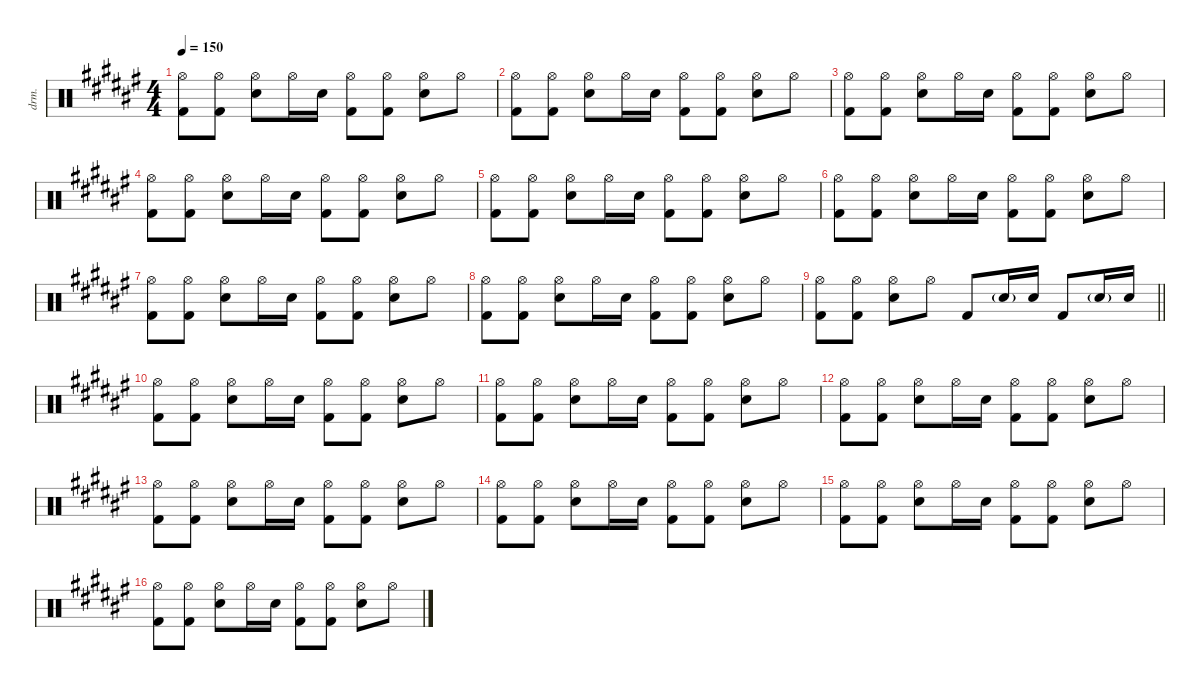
\defaultSystemsLayout 4
\hideDynamics
\bracketExtendMode nobrackets
\track (" (Drums)" "drm.") {instrument percussion}
\staff {score}
\articulation defaults
\ts (4 4)
\tempo 150
\clef neutral
\ks d#minor
("Hi-Hat (open)"{acc forcenatural} "Kick (hit) 2"{acc forcenatural}).8{dy f} ("Hi-Hat (open)"{acc forcenatural} "Kick (hit) 2"{acc forcenatural}).8 ("Hi-Hat (open)"{acc forcenatural} "Snare (hit) 2"{acc forcenatural}).8 "Hi-Hat (open)"{acc forcenatural}.16 "Snare (hit) 2"{acc forcenatural}.16{dy mf} ("Hi-Hat (open)"{acc forcenatural} "Kick (hit) 2"{acc forcenatural}).8{dy f} ("Hi-Hat (open)"{acc forcenatural} "Kick (hit) 2"{acc forcenatural}).8 ("Hi-Hat (open)"{acc forcenatural} "Snare (hit) 2"{acc forcenatural}).8 "Hi-Hat (open)"{acc forcenatural}.8 |
("Hi-Hat (open)"{acc forcenatural} "Kick (hit) 2"{acc forcenatural}).8 ("Hi-Hat (open)"{acc forcenatural} "Kick (hit) 2"{acc forcenatural}).8 ("Hi-Hat (open)"{acc forcenatural} "Snare (hit) 2"{acc forcenatural}).8 "Hi-Hat (open)"{acc forcenatural}.16 "Snare (hit) 2"{acc forcenatural}.16{dy mf} ("Hi-Hat (open)"{acc forcenatural} "Kick (hit) 2"{acc forcenatural}).8{dy f} ("Hi-Hat (open)"{acc forcenatural} "Kick (hit) 2"{acc forcenatural}).8 ("Hi-Hat (open)"{acc forcenatural} "Snare (hit) 2"{acc forcenatural}).8 "Hi-Hat (open)"{acc forcenatural}.8 |
("Hi-Hat (open)"{acc forcenatural} "Kick (hit) 2"{acc forcenatural}).8 ("Hi-Hat (open)"{acc forcenatural} "Kick (hit) 2"{acc forcenatural}).8 ("Hi-Hat (open)"{acc forcenatural} "Snare (hit) 2"{acc forcenatural}).8 "Hi-Hat (open)"{acc forcenatural}.16 "Snare (hit) 2"{acc forcenatural}.16{dy mf} ("Hi-Hat (open)"{acc forcenatural} "Kick (hit) 2"{acc forcenatural}).8{dy f} ("Hi-Hat (open)"{acc forcenatural} "Kick (hit) 2"{acc forcenatural}).8 ("Hi-Hat (open)"{acc forcenatural} "Snare (hit) 2"{acc forcenatural}).8 "Hi-Hat (open)"{acc forcenatural}.8 |
("Hi-Hat (open)"{acc forcenatural} "Kick (hit) 2"{acc forcenatural}).8 ("Hi-Hat (open)"{acc forcenatural} "Kick (hit) 2"{acc forcenatural}).8 ("Hi-Hat (open)"{acc forcenatural} "Snare (hit) 2"{acc forcenatural}).8 "Hi-Hat (open)"{acc forcenatural}.16 "Snare (hit) 2"{acc forcenatural}.16{dy mf} ("Hi-Hat (open)"{acc forcenatural} "Kick (hit) 2"{acc forcenatural}).8{dy f} ("Hi-Hat (open)"{acc forcenatural} "Kick (hit) 2"{acc forcenatural}).8 ("Hi-Hat (open)"{acc forcenatural} "Snare (hit) 2"{acc forcenatural}).8 "Hi-Hat (open)"{acc forcenatural}.8 |
("Hi-Hat (open)"{acc forcenatural} "Kick (hit) 2"{acc forcenatural}).8 ("Hi-Hat (open)"{acc forcenatural} "Kick (hit) 2"{acc forcenatural}).8 ("Hi-Hat (open)"{acc forcenatural} "Snare (hit) 2"{acc forcenatural}).8 "Hi-Hat (open)"{acc forcenatural}.16 "Snare (hit) 2"{acc forcenatural}.16{dy mf} ("Hi-Hat (open)"{acc forcenatural} "Kick (hit) 2"{acc forcenatural}).8{dy f} ("Hi-Hat (open)"{acc forcenatural} "Kick (hit) 2"{acc forcenatural}).8 ("Hi-Hat (open)"{acc forcenatural} "Snare (hit) 2"{acc forcenatural}).8 "Hi-Hat (open)"{acc forcenatural}.8 |
("Hi-Hat (open)"{acc forcenatural} "Kick (hit) 2"{acc forcenatural}).8 ("Hi-Hat (open)"{acc forcenatural} "Kick (hit) 2"{acc forcenatural}).8 ("Hi-Hat (open)"{acc forcenatural} "Snare (hit) 2"{acc forcenatural}).8 "Hi-Hat (open)"{acc forcenatural}.16 "Snare (hit) 2"{acc forcenatural}.16{dy mf} ("Hi-Hat (open)"{acc forcenatural} "Kick (hit) 2"{acc forcenatural}).8{dy f} ("Hi-Hat (open)"{acc forcenatural} "Kick (hit) 2"{acc forcenatural}).8 ("Hi-Hat (open)"{acc forcenatural} "Snare (hit) 2"{acc forcenatural}).8 "Hi-Hat (open)"{acc forcenatural}.8 |
("Hi-Hat (open)"{acc forcenatural} "Kick (hit) 2"{acc forcenatural}).8 ("Hi-Hat (open)"{acc forcenatural} "Kick (hit) 2"{acc forcenatural}).8 ("Hi-Hat (open)"{acc forcenatural} "Snare (hit) 2"{acc forcenatural}).8 "Hi-Hat (open)"{acc forcenatural}.16 "Snare (hit) 2"{acc forcenatural}.16{dy mf} ("Hi-Hat (open)"{acc forcenatural} "Kick (hit) 2"{acc forcenatural}).8{dy f} ("Hi-Hat (open)"{acc forcenatural} "Kick (hit) 2"{acc forcenatural}).8 ("Hi-Hat (open)"{acc forcenatural} "Snare (hit) 2"{acc forcenatural}).8 "Hi-Hat (open)"{acc forcenatural}.8 |
("Hi-Hat (open)"{acc forcenatural} "Kick (hit) 2"{acc forcenatural}).8 ("Hi-Hat (open)"{acc forcenatural} "Kick (hit) 2"{acc forcenatural}).8 ("Hi-Hat (open)"{acc forcenatural} "Snare (hit) 2"{acc forcenatural}).8 "Hi-Hat (open)"{acc forcenatural}.16 "Snare (hit) 2"{acc forcenatural}.16{dy mf} ("Hi-Hat (open)"{acc forcenatural} "Kick (hit) 2"{acc forcenatural}).8{dy f} ("Hi-Hat (open)"{acc forcenatural} "Kick (hit) 2"{acc forcenatural}).8 ("Hi-Hat (open)"{acc forcenatural} "Snare (hit) 2"{acc forcenatural}).8 "Hi-Hat (open)"{acc forcenatural}.8 |
\barLineRight lightlight
("Hi-Hat (open)"{acc forcenatural} "Kick (hit) 2"{acc forcenatural}).8 ("Hi-Hat (open)"{acc forcenatural} "Kick (hit) 2"{acc forcenatural}).8 ("Hi-Hat (open)"{acc forcenatural} "Snare (hit) 2"{acc forcenatural}).8 "Hi-Hat (open)"{acc forcenatural}.8 "Kick (hit) 2"{acc forcenatural}.8 "Snare (hit) 2"{g acc forcenatural}.16{dy mf} "Snare (hit) 2"{acc forcenatural}.16{dy f} "Kick (hit) 2"{acc forcenatural}.8 "Snare (hit) 2"{g acc forcenatural}.16{dy mf} "Snare (hit) 2"{acc forcenatural}.16{dy f} |
("Hi-Hat (open)"{acc forcenatural} "Kick (hit) 2"{acc forcenatural}).8 ("Hi-Hat (open)"{acc forcenatural} "Kick (hit) 2"{acc forcenatural}).8 ("Hi-Hat (open)"{acc forcenatural} "Snare (hit) 2"{acc forcenatural}).8 "Hi-Hat (open)"{acc forcenatural}.16 "Snare (hit) 2"{acc forcenatural}.16{dy mf} ("Hi-Hat (open)"{acc forcenatural} "Kick (hit) 2"{acc forcenatural}).8{dy f} ("Hi-Hat (open)"{acc forcenatural} "Kick (hit) 2"{acc forcenatural}).8 ("Hi-Hat (open)"{acc forcenatural} "Snare (hit) 2"{acc forcenatural}).8 "Hi-Hat (open)"{acc forcenatural}.8 |
("Hi-Hat (open)"{acc forcenatural} "Kick (hit) 2"{acc forcenatural}).8 ("Hi-Hat (open)"{acc forcenatural} "Kick (hit) 2"{acc forcenatural}).8 ("Hi-Hat (open)"{acc forcenatural} "Snare (hit) 2"{acc forcenatural}).8 "Hi-Hat (open)"{acc forcenatural}.16 "Snare (hit) 2"{acc forcenatural}.16{dy mf} ("Hi-Hat (open)"{acc forcenatural} "Kick (hit) 2"{acc forcenatural}).8{dy f} ("Hi-Hat (open)"{acc forcenatural} "Kick (hit) 2"{acc forcenatural}).8 ("Hi-Hat (open)"{acc forcenatural} "Snare (hit) 2"{acc forcenatural}).8 "Hi-Hat (open)"{acc forcenatural}.8 |
("Hi-Hat (open)"{acc forcenatural} "Kick (hit) 2"{acc forcenatural}).8 ("Hi-Hat (open)"{acc forcenatural} "Kick (hit) 2"{acc forcenatural}).8 ("Hi-Hat (open)"{acc forcenatural} "Snare (hit) 2"{acc forcenatural}).8 "Hi-Hat (open)"{acc forcenatural}.16 "Snare (hit) 2"{acc forcenatural}.16{dy mf} ("Hi-Hat (open)"{acc forcenatural} "Kick (hit) 2"{acc forcenatural}).8{dy f} ("Hi-Hat (open)"{acc forcenatural} "Kick (hit) 2"{acc forcenatural}).8 ("Hi-Hat (open)"{acc forcenatural} "Snare (hit) 2"{acc forcenatural}).8 "Hi-Hat (open)"{acc forcenatural}.8 |
("Hi-Hat (open)"{acc forcenatural} "Kick (hit) 2"{acc forcenatural}).8 ("Hi-Hat (open)"{acc forcenatural} "Kick (hit) 2"{acc forcenatural}).8 ("Hi-Hat (open)"{acc forcenatural} "Snare (hit) 2"{acc forcenatural}).8 "Hi-Hat (open)"{acc forcenatural}.16 "Snare (hit) 2"{acc forcenatural}.16{dy mf} ("Hi-Hat (open)"{acc forcenatural} "Kick (hit) 2"{acc forcenatural}).8{dy f} ("Hi-Hat (open)"{acc forcenatural} "Kick (hit) 2"{acc forcenatural}).8 ("Hi-Hat (open)"{acc forcenatural} "Snare (hit) 2"{acc forcenatural}).8 "Hi-Hat (open)"{acc forcenatural}.8 |
("Hi-Hat (open)"{acc forcenatural} "Kick (hit) 2"{acc forcenatural}).8 ("Hi-Hat (open)"{acc forcenatural} "Kick (hit) 2"{acc forcenatural}).8 ("Hi-Hat (open)"{acc forcenatural} "Snare (hit) 2"{acc forcenatural}).8 "Hi-Hat (open)"{acc forcenatural}.16 "Snare (hit) 2"{acc forcenatural}.16{dy mf} ("Hi-Hat (open)"{acc forcenatural} "Kick (hit) 2"{acc forcenatural}).8{dy f} ("Hi-Hat (open)"{acc forcenatural} "Kick (hit) 2"{acc forcenatural}).8 ("Hi-Hat (open)"{acc forcenatural} "Snare (hit) 2"{acc forcenatural}).8 "Hi-Hat (open)"{acc forcenatural}.8 |
("Hi-Hat (open)"{acc forcenatural} "Kick (hit) 2"{acc forcenatural}).8 ("Hi-Hat (open)"{acc forcenatural} "Kick (hit) 2"{acc forcenatural}).8 ("Hi-Hat (open)"{acc forcenatural} "Snare (hit) 2"{acc forcenatural}).8 "Hi-Hat (open)"{acc forcenatural}.16 "Snare (hit) 2"{acc forcenatural}.16{dy mf} ("Hi-Hat (open)"{acc forcenatural} "Kick (hit) 2"{acc forcenatural}).8{dy f} ("Hi-Hat (open)"{acc forcenatural} "Kick (hit) 2"{acc forcenatural}).8 ("Hi-Hat (open)"{acc forcenatural} "Snare (hit) 2"{acc forcenatural}).8 "Hi-Hat (open)"{acc forcenatural}.8 |
("Hi-Hat (open)"{acc forcenatural} "Kick (hit) 2"{acc forcenatural}).8 ("Hi-Hat (open)"{acc forcenatural} "Kick (hit) 2"{acc forcenatural}).8 ("Hi-Hat (open)"{acc forcenatural} "Snare (hit) 2"{acc forcenatural}).8 "Hi-Hat (open)"{acc forcenatural}.16 "Snare (hit) 2"{acc forcenatural}.16{dy mf} ("Hi-Hat (open)"{acc forcenatural} "Kick (hit) 2"{acc forcenatural}).8{dy f} ("Hi-Hat (open)"{acc forcenatural} "Kick (hit) 2"{acc forcenatural}).8 ("Hi-Hat (open)"{acc forcenatural} "Snare (hit) 2"{acc forcenatural}).8 "Hi-Hat (open)"{acc forcenatural}.8
